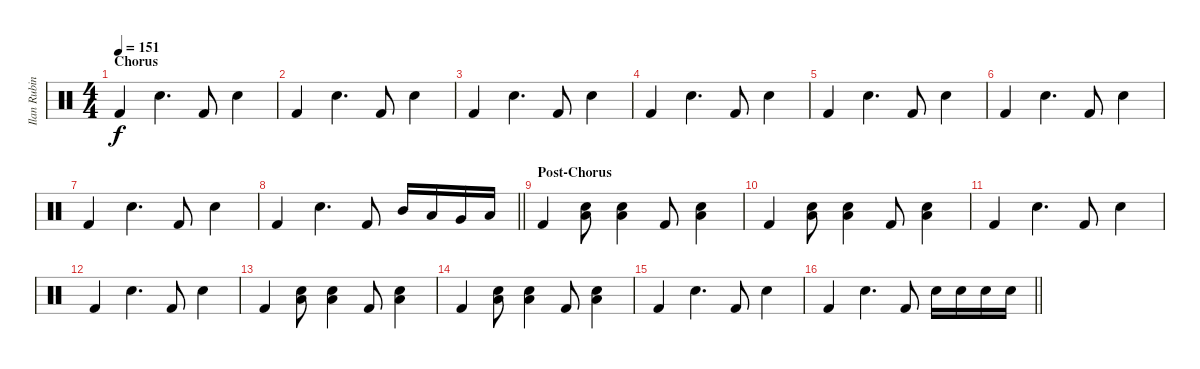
\track ("Ilan Rubin [Drums]" "Ilan Rubin") {instrument percussion}
\staff {score}
\articulation defaults
\ts (4 4)
\section ("" "Chorus")
\tempo 151
\clef neutral
\ks c "Kick (hit) 2".4{dy f} "Snare (hit) 2".4{d} "Kick (hit) 2".8 "Snare (hit) 2".4
|
"Kick (hit) 2".4 "Snare (hit) 2".4{d} "Kick (hit) 2".8 "Snare (hit) 2".4 |
"Kick (hit) 2".4 "Snare (hit) 2".4{d} "Kick (hit) 2".8 "Snare (hit) 2".4 |
"Kick (hit) 2".4 "Snare (hit) 2".4{d} "Kick (hit) 2".8 "Snare (hit) 2".4 |
"Kick (hit) 2".4 "Snare (hit) 2".4{d} "Kick (hit) 2".8 "Snare (hit) 2".4 |
"Kick (hit) 2".4 "Snare (hit) 2".4{d} "Kick (hit) 2".8 "Snare (hit) 2".4 |
"Kick (hit) 2".4 "Snare (hit) 2".4{d} "Kick (hit) 2".8 "Snare (hit) 2".4 |
\barLineRight lightlight "Kick (hit) 2".4 "Snare (hit) 2".4{d} "Kick (hit) 2".8 "Mid Tom (hit)".16 "Low Tom (hit)".16 "Very Low Tom (hit)".16 "Low Floor Tom (hit)".16
|
\section ("" "Post-Chorus")
"Kick (hit) 2".4 ("Low Floor Tom (hit)" "Snare (hit) 2").8 ("Low Floor Tom (hit)" "Snare (hit) 2").4 "Kick (hit) 2".8 ("Low Floor Tom (hit)" "Snare (hit) 2").4 |
"Kick (hit) 2".4 ("Low Floor Tom (hit)" "Snare (hit) 2").8 ("Low Floor Tom (hit)" "Snare (hit) 2").4 "Kick (hit) 2".8 ("Low Floor Tom (hit)" "Snare (hit) 2").4 |
"Kick (hit) 2".4 "Snare (hit) 2".4{d} "Kick (hit) 2".8 "Snare (hit) 2".4 |
"Kick (hit) 2".4 "Snare (hit) 2".4{d} "Kick (hit) 2".8 "Snare (hit) 2".4 |
"Kick (hit) 2".4 ("Low Floor Tom (hit)" "Snare (hit) 2").8 ("Low Floor Tom (hit)" "Snare (hit) 2").4 "Kick (hit) 2".8 ("Low Floor Tom (hit)" "Snare (hit) 2").4 |
"Kick (hit) 2".4 ("Low Floor Tom (hit)" "Snare (hit) 2").8 ("Low Floor Tom (hit)" "Snare (hit) 2").4 "Kick (hit) 2".8 ("Low Floor Tom (hit)" "Snare (hit) 2").4 |
"Kick (hit) 2".4 "Snare (hit) 2".4{d} "Kick (hit) 2".8 "Snare (hit) 2".4 |
\barLineRight lightlight "Kick (hit) 2".4 "Snare (hit) 2".4{d} "Kick (hit) 2".8 "Snare (hit) 2".16 "Snare (hit) 2".16 "Snare (hit) 2".16 "Snare (hit) 2".16
